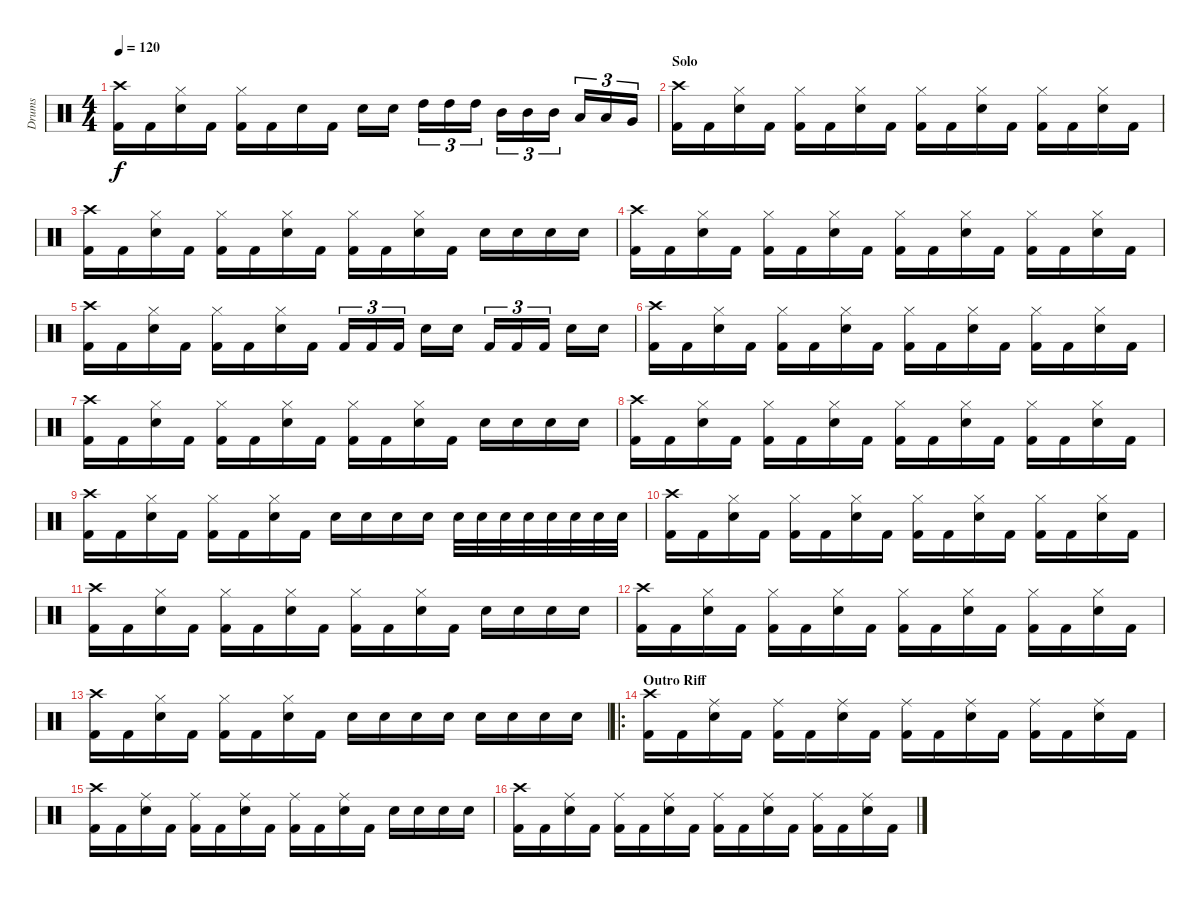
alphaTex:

\track ("Drums" "Drums") {instrument percussion}
\staff {score}
\articulation defaults
\ts (4 4)
\tempo 120
\clef neutral
\ks c
("Kick (hit) 2" "Crash high (hit)").16{dy f} "Kick (hit) 2".16 ("Electric Snare (hit)" "Hi-Hat (closed)").16 "Kick (hit) 2".16 ("Kick (hit) 2" "Hi-Hat (closed)").16 "Kick (hit) 2".16 "Electric Snare (hit)".16 "Kick (hit) 2".16 "Electric Snare (hit)".16 "Electric Snare (hit)".16 "High Tom (hit)".16{tu (3 2)} "High Tom (hit)".16{tu (3 2)} "High Tom (hit)".16{tu (3 2)} "Mid Tom (hit)".16{tu (3 2)} "Mid Tom (hit)".16{tu (3 2)} "Mid Tom (hit)".16{tu (3 2)} "Low Tom (hit)".16{tu (3 2)} "Low Tom (hit)".16{tu (3 2)} "Very Low Tom (hit)".16{tu (3 2)} |
\section ("" "Solo")
("Kick (hit) 2" "Crash high (hit)").16 "Kick (hit) 2".16 ("Electric Snare (hit)" "Hi-Hat (closed)").16 "Kick (hit) 2".16 ("Kick (hit) 2" "Hi-Hat (closed)").16 "Kick (hit) 2".16 ("Electric Snare (hit)" "Hi-Hat (closed)").16 "Kick (hit) 2".16 ("Kick (hit) 2" "Hi-Hat (closed)").16 "Kick (hit) 2".16 ("Electric Snare (hit)" "Hi-Hat (closed)").16 "Kick (hit) 2".16 ("Kick (hit) 2" "Hi-Hat (closed)").16 "Kick (hit) 2".16 ("Electric Snare (hit)" "Hi-Hat (closed)").16 "Kick (hit) 2".16 |
("Kick (hit) 2" "Crash high (hit)").16 "Kick (hit) 2".16 ("Electric Snare (hit)" "Hi-Hat (closed)").16 "Kick (hit) 2".16 ("Kick (hit) 2" "Hi-Hat (closed)").16 "Kick (hit) 2".16 ("Electric Snare (hit)" "Hi-Hat (closed)").16 "Kick (hit) 2".16 ("Kick (hit) 2" "Hi-Hat (closed)").16 "Kick (hit) 2".16 ("Electric Snare (hit)" "Hi-Hat (closed)").16 "Kick (hit) 2".16 "Electric Snare (hit)".16 "Electric Snare (hit)".16 "Electric Snare (hit)".16 "Electric Snare (hit)".16 |
("Kick (hit) 2" "Crash high (hit)").16 "Kick (hit) 2".16 ("Electric Snare (hit)" "Hi-Hat (closed)").16 "Kick (hit) 2".16 ("Kick (hit) 2" "Hi-Hat (closed)").16 "Kick (hit) 2".16 ("Electric Snare (hit)" "Hi-Hat (closed)").16 "Kick (hit) 2".16 ("Kick (hit) 2" "Hi-Hat (closed)").16 "Kick (hit) 2".16 ("Electric Snare (hit)" "Hi-Hat (closed)").16 "Kick (hit) 2".16 ("Kick (hit) 2" "Hi-Hat (closed)").16 "Kick (hit) 2".16 ("Electric Snare (hit)" "Hi-Hat (closed)").16 "Kick (hit) 2".16 |
("Kick (hit) 2" "Crash high (hit)").16 "Kick (hit) 2".16 ("Electric Snare (hit)" "Hi-Hat (closed)").16 "Kick (hit) 2".16 ("Kick (hit) 2" "Hi-Hat (closed)").16 "Kick (hit) 2".16 ("Electric Snare (hit)" "Hi-Hat (closed)").16 "Kick (hit) 2".16 "Kick (hit) 2".16{tu (3 2)} "Kick (hit) 2".16{tu (3 2)} "Kick (hit) 2".16{tu (3 2)} "Electric Snare (hit)".16 "Electric Snare (hit)".16 "Kick (hit) 2".16{tu (3 2)} "Kick (hit) 2".16{tu (3 2)} "Kick (hit) 2".16{tu (3 2)} "Electric Snare (hit)".16 "Electric Snare (hit)".16 |
("Kick (hit) 2" "Crash high (hit)").16 "Kick (hit) 2".16 ("Electric Snare (hit)" "Hi-Hat (closed)").16 "Kick (hit) 2".16 ("Kick (hit) 2" "Hi-Hat (closed)").16 "Kick (hit) 2".16 ("Electric Snare (hit)" "Hi-Hat (closed)").16 "Kick (hit) 2".16 ("Kick (hit) 2" "Hi-Hat (closed)").16 "Kick (hit) 2".16 ("Electric Snare (hit)" "Hi-Hat (closed)").16 "Kick (hit) 2".16 ("Kick (hit) 2" "Hi-Hat (closed)").16 "Kick (hit) 2".16 ("Electric Snare (hit)" "Hi-Hat (closed)").16 "Kick (hit) 2".16 |
("Kick (hit) 2" "Crash high (hit)").16 "Kick (hit) 2".16 ("Electric Snare (hit)" "Hi-Hat (closed)").16 "Kick (hit) 2".16 ("Kick (hit) 2" "Hi-Hat (closed)").16 "Kick (hit) 2".16 ("Electric Snare (hit)" "Hi-Hat (closed)").16 "Kick (hit) 2".16 ("Kick (hit) 2" "Hi-Hat (closed)").16 "Kick (hit) 2".16 ("Electric Snare (hit)" "Hi-Hat (closed)").16 "Kick (hit) 2".16 "Electric Snare (hit)".16 "Electric Snare (hit)".16 "Electric Snare (hit)".16 "Electric Snare (hit)".16 |
("Kick (hit) 2" "Crash high (hit)").16 "Kick (hit) 2".16 ("Electric Snare (hit)" "Hi-Hat (closed)").16 "Kick (hit) 2".16 ("Kick (hit) 2" "Hi-Hat (closed)").16 "Kick (hit) 2".16 ("Electric Snare (hit)" "Hi-Hat (closed)").16 "Kick (hit) 2".16 ("Kick (hit) 2" "Hi-Hat (closed)").16 "Kick (hit) 2".16 ("Electric Snare (hit)" "Hi-Hat (closed)").16 "Kick (hit) 2".16 ("Kick (hit) 2" "Hi-Hat (closed)").16 "Kick (hit) 2".16 ("Electric Snare (hit)" "Hi-Hat (closed)").16 "Kick (hit) 2".16 |
("Kick (hit) 2" "Crash high (hit)").16 "Kick (hit) 2".16 ("Electric Snare (hit)" "Hi-Hat (closed)").16 "Kick (hit) 2".16 ("Kick (hit) 2" "Hi-Hat (closed)").16 "Kick (hit) 2".16 ("Electric Snare (hit)" "Hi-Hat (closed)").16 "Kick (hit) 2".16 "Electric Snare (hit)".16 "Electric Snare (hit)".16 "Electric Snare (hit)".16 "Electric Snare (hit)".16 "Electric Snare (hit)".32 "Electric Snare (hit)".32 "Electric Snare (hit)".32 "Electric Snare (hit)".32 "Electric Snare (hit)".32 "Electric Snare (hit)".32 "Electric Snare (hit)".32 "Electric Snare (hit)".32 |
("Kick (hit) 2" "Crash high (hit)").16 "Kick (hit) 2".16 ("Electric Snare (hit)" "Hi-Hat (closed)").16 "Kick (hit) 2".16 ("Kick (hit) 2" "Hi-Hat (closed)").16 "Kick (hit) 2".16 ("Electric Snare (hit)" "Hi-Hat (closed)").16 "Kick (hit) 2".16 ("Kick (hit) 2" "Hi-Hat (closed)").16 "Kick (hit) 2".16 ("Electric Snare (hit)" "Hi-Hat (closed)").16 "Kick (hit) 2".16 ("Kick (hit) 2" "Hi-Hat (closed)").16 "Kick (hit) 2".16 ("Electric Snare (hit)" "Hi-Hat (closed)").16 "Kick (hit) 2".16 |
("Kick (hit) 2" "Crash high (hit)").16 "Kick (hit) 2".16 ("Electric Snare (hit)" "Hi-Hat (closed)").16 "Kick (hit) 2".16 ("Kick (hit) 2" "Hi-Hat (closed)").16 "Kick (hit) 2".16 ("Electric Snare (hit)" "Hi-Hat (closed)").16 "Kick (hit) 2".16 ("Kick (hit) 2" "Hi-Hat (closed)").16 "Kick (hit) 2".16 ("Electric Snare (hit)" "Hi-Hat (closed)").16 "Kick (hit) 2".16 "Electric Snare (hit)".16 "Electric Snare (hit)".16 "Electric Snare (hit)".16 "Electric Snare (hit)".16 |
("Kick (hit) 2" "Crash high (hit)").16 "Kick (hit) 2".16 ("Electric Snare (hit)" "Hi-Hat (closed)").16 "Kick (hit) 2".16 ("Kick (hit) 2" "Hi-Hat (closed)").16 "Kick (hit) 2".16 ("Electric Snare (hit)" "Hi-Hat (closed)").16 "Kick (hit) 2".16 ("Kick (hit) 2" "Hi-Hat (closed)").16 "Kick (hit) 2".16 ("Electric Snare (hit)" "Hi-Hat (closed)").16 "Kick (hit) 2".16 ("Kick (hit) 2" "Hi-Hat (closed)").16 "Kick (hit) 2".16 ("Electric Snare (hit)" "Hi-Hat (closed)").16 "Kick (hit) 2".16 |
("Kick (hit) 2" "Crash high (hit)").16 "Kick (hit) 2".16 ("Electric Snare (hit)" "Hi-Hat (closed)").16 "Kick (hit) 2".16 ("Kick (hit) 2" "Hi-Hat (closed)").16 "Kick (hit) 2".16 ("Electric Snare (hit)" "Hi-Hat (closed)").16 "Kick (hit) 2".16 "Electric Snare (hit)".16 "Electric Snare (hit)".16 "Electric Snare (hit)".16 "Electric Snare (hit)".16 "Electric Snare (hit)".16 "Electric Snare (hit)".16 "Electric Snare (hit)".16 "Electric Snare (hit)".16 |
\ro
\section ("" "Outro Riff")
("Kick (hit) 2" "Crash high (hit)").16 "Kick (hit) 2".16 ("Electric Snare (hit)" "Ride (middle)").16 "Kick (hit) 2".16 ("Kick (hit) 2" "Ride (middle)").16 "Kick (hit) 2".16 ("Electric Snare (hit)" "Ride (middle)").16 "Kick (hit) 2".16 ("Kick (hit) 2" "Ride (middle)").16 "Kick (hit) 2".16 ("Electric Snare (hit)" "Ride (middle)").16 "Kick (hit) 2".16 ("Kick (hit) 2" "Ride (middle)").16 "Kick (hit) 2".16 ("Electric Snare (hit)" "Ride (middle)").16 "Kick (hit) 2".16 |
("Kick (hit) 2" "Crash high (hit)").16 "Kick (hit) 2".16 ("Electric Snare (hit)" "Ride (middle)").16 "Kick (hit) 2".16 ("Kick (hit) 2" "Ride (middle)").16 "Kick (hit) 2".16 ("Electric Snare (hit)" "Ride (middle)").16 "Kick (hit) 2".16 ("Kick (hit) 2" "Ride (middle)").16 "Kick (hit) 2".16 ("Electric Snare (hit)" "Ride (middle)").16 "Kick (hit) 2".16 "Electric Snare (hit)".16 "Electric Snare (hit)".16 "Electric Snare (hit)".16 "Electric Snare (hit)".16 |
("Kick (hit) 2" "Crash high (hit)").16 "Kick (hit) 2".16 ("Electric Snare (hit)" "Ride (middle)").16 "Kick (hit) 2".16 ("Kick (hit) 2" "Ride (middle)").16 "Kick (hit) 2".16 ("Electric Snare (hit)" "Ride (middle)").16 "Kick (hit) 2".16 ("Kick (hit) 2" "Ride (middle)").16 "Kick (hit) 2".16 ("Electric Snare (hit)" "Ride (middle)").16 "Kick (hit) 2".16 ("Kick (hit) 2" "Ride (middle)").16 "Kick (hit) 2".16 ("Electric Snare (hit)" "Ride (middle)").16 "Kick (hit) 2".16
